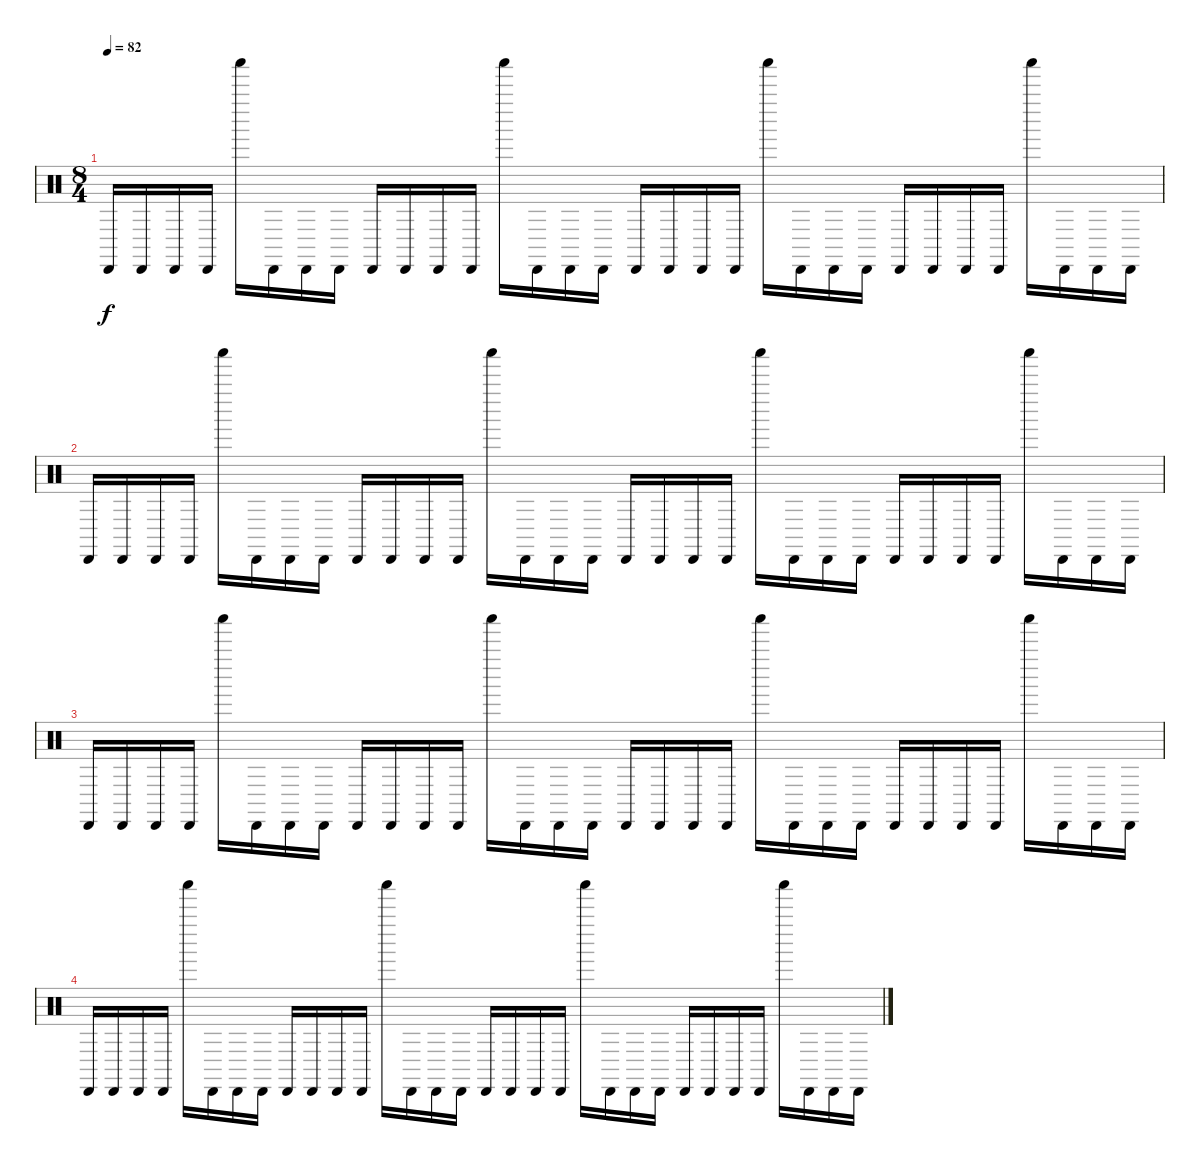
\track "" {instrument percussion}
\staff {score}
\articulation defaults
\ts (8 4)
\tempo 82
\clef neutral
\ks c "Cabasa (hit)".16{dy f} "Cabasa (hit)".16 "Cabasa (hit)".16 "Cabasa (hit)".16 "Shaker (hit)".16 "Cabasa (hit)".16 "Cabasa (hit)".16 "Cabasa (hit)".16 "Cabasa (hit)".16 "Cabasa (hit)".16 "Cabasa (hit)".16 "Cabasa (hit)".16 "Shaker (hit)".16 "Cabasa (hit)".16 "Cabasa (hit)".16 "Cabasa (hit)".16 "Cabasa (hit)".16 "Cabasa (hit)".16 "Cabasa (hit)".16 "Cabasa (hit)".16 "Shaker (hit)".16 "Cabasa (hit)".16 "Cabasa (hit)".16 "Cabasa (hit)".16 "Cabasa (hit)".16 "Cabasa (hit)".16 "Cabasa (hit)".16 "Cabasa (hit)".16 "Shaker (hit)".16 "Cabasa (hit)".16 "Cabasa (hit)".16 "Cabasa (hit)".16
|
"Cabasa (hit)".16 "Cabasa (hit)".16 "Cabasa (hit)".16 "Cabasa (hit)".16 "Shaker (hit)".16 "Cabasa (hit)".16 "Cabasa (hit)".16 "Cabasa (hit)".16 "Cabasa (hit)".16 "Cabasa (hit)".16 "Cabasa (hit)".16 "Cabasa (hit)".16 "Shaker (hit)".16 "Cabasa (hit)".16 "Cabasa (hit)".16 "Cabasa (hit)".16 "Cabasa (hit)".16 "Cabasa (hit)".16 "Cabasa (hit)".16 "Cabasa (hit)".16 "Shaker (hit)".16 "Cabasa (hit)".16 "Cabasa (hit)".16 "Cabasa (hit)".16 "Cabasa (hit)".16 "Cabasa (hit)".16 "Cabasa (hit)".16 "Cabasa (hit)".16 "Shaker (hit)".16 "Cabasa (hit)".16 "Cabasa (hit)".16 "Cabasa (hit)".16 |
"Cabasa (hit)".16 "Cabasa (hit)".16 "Cabasa (hit)".16 "Cabasa (hit)".16 "Shaker (hit)".16 "Cabasa (hit)".16 "Cabasa (hit)".16 "Cabasa (hit)".16 "Cabasa (hit)".16 "Cabasa (hit)".16 "Cabasa (hit)".16 "Cabasa (hit)".16 "Shaker (hit)".16 "Cabasa (hit)".16 "Cabasa (hit)".16 "Cabasa (hit)".16 "Cabasa (hit)".16 "Cabasa (hit)".16 "Cabasa (hit)".16 "Cabasa (hit)".16 "Shaker (hit)".16 "Cabasa (hit)".16 "Cabasa (hit)".16 "Cabasa (hit)".16 "Cabasa (hit)".16 "Cabasa (hit)".16 "Cabasa (hit)".16 "Cabasa (hit)".16 "Shaker (hit)".16 "Cabasa (hit)".16 "Cabasa (hit)".16 "Cabasa (hit)".16 |
"Cabasa (hit)".16 "Cabasa (hit)".16 "Cabasa (hit)".16 "Cabasa (hit)".16 "Shaker (hit)".16 "Cabasa (hit)".16 "Cabasa (hit)".16 "Cabasa (hit)".16 "Cabasa (hit)".16 "Cabasa (hit)".16 "Cabasa (hit)".16 "Cabasa (hit)".16 "Shaker (hit)".16 "Cabasa (hit)".16 "Cabasa (hit)".16 "Cabasa (hit)".16 "Cabasa (hit)".16 "Cabasa (hit)".16 "Cabasa (hit)".16 "Cabasa (hit)".16 "Shaker (hit)".16 "Cabasa (hit)".16 "Cabasa (hit)".16 "Cabasa (hit)".16 "Cabasa (hit)".16 "Cabasa (hit)".16 "Cabasa (hit)".16 "Cabasa (hit)".16 "Shaker (hit)".16 "Cabasa (hit)".16 "Cabasa (hit)".16 "Cabasa (hit)".16
